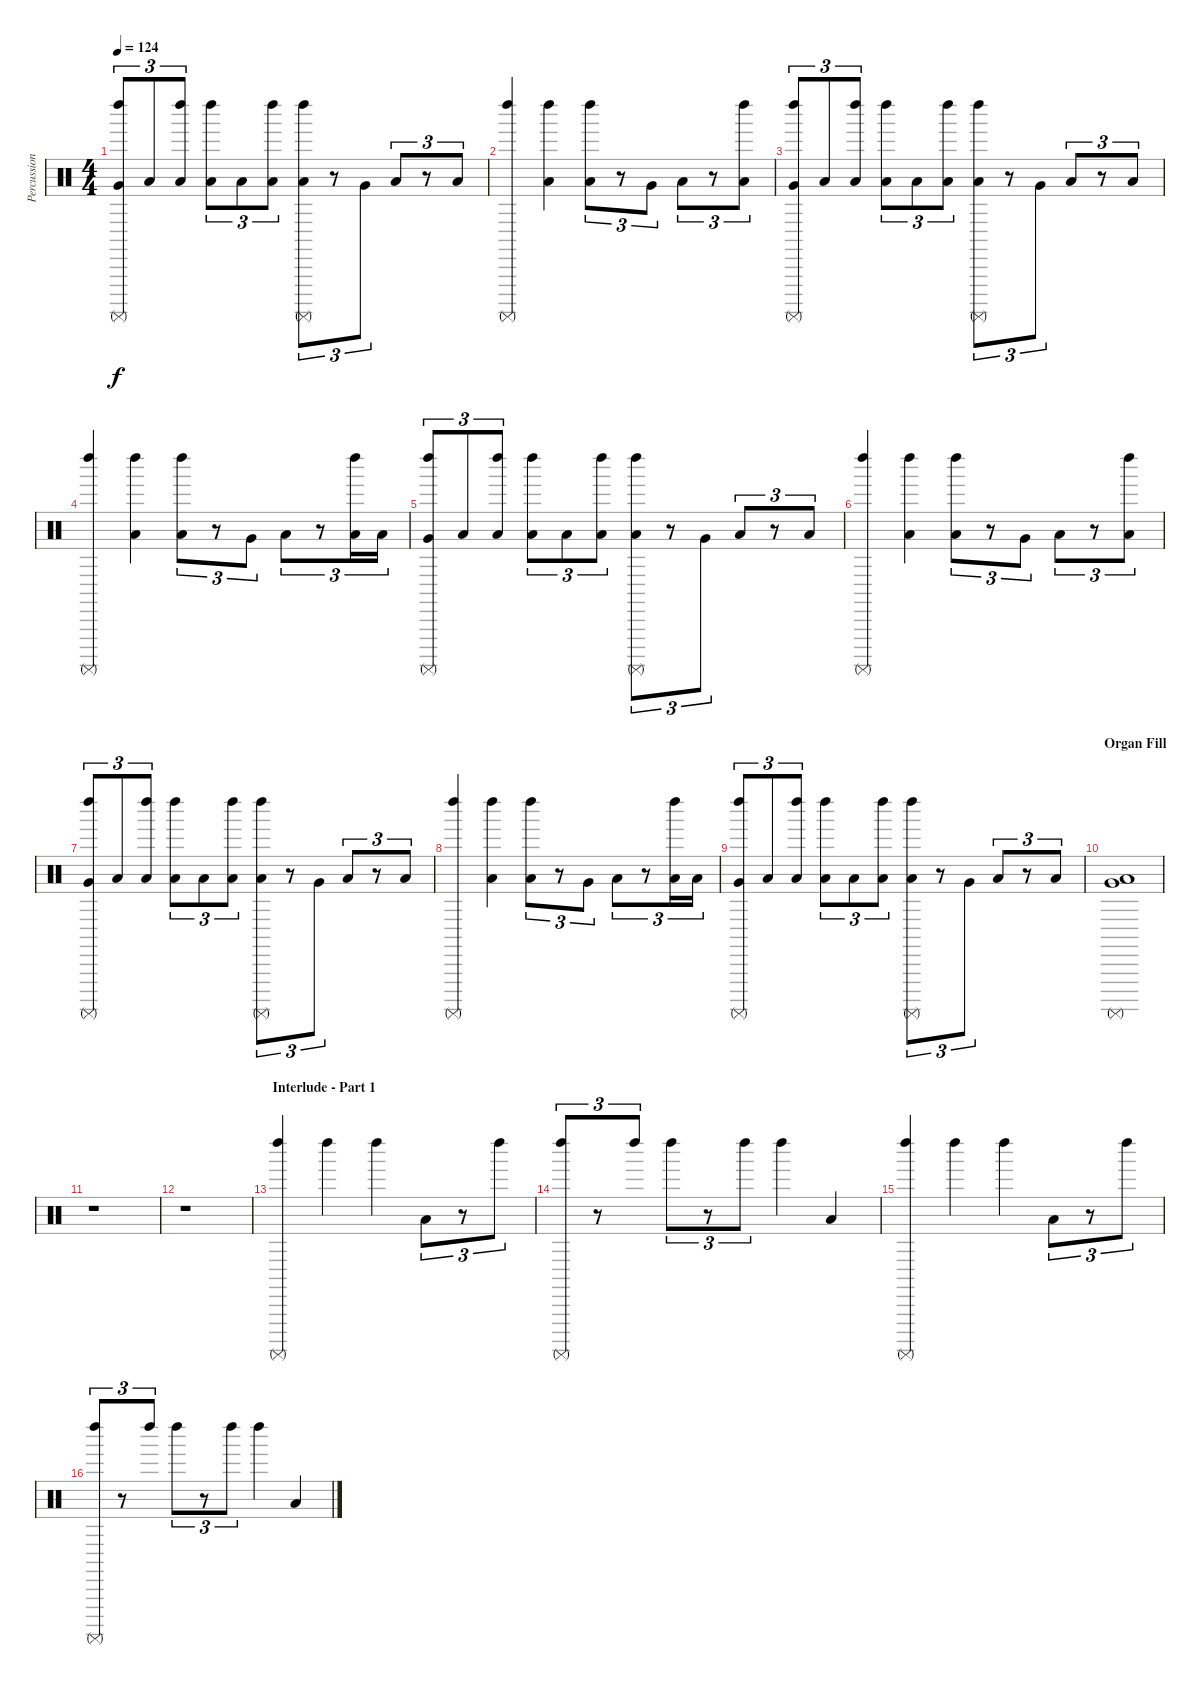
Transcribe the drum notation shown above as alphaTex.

\track ("Percussion" "Percussion") {instrument percussion}
\staff {score}
\articulation defaults
\ts (4 4)
\tempo 124
\clef neutral
\ks c
("Left Maraca (hit)" "Very Low Tom (hit)" "Surdo (mute)").8{tu (3 2) dy f} "Low Floor Tom (hit)".8{tu (3 2)} ("Left Maraca (hit)" "Low Floor Tom (hit)").8{tu (3 2)} ("Left Maraca (hit)" "Low Floor Tom (hit)").8{tu (3 2)} "Low Floor Tom (hit)".8{tu (3 2)} ("Left Maraca (hit)" "Low Floor Tom (hit)").8{tu (3 2)} ("Left Maraca (hit)" "Low Floor Tom (hit)" "Surdo (mute)").8{tu (3 2)} r.8{tu (3 2)} "Very Low Tom (hit)".8{tu (3 2)} "Low Floor Tom (hit)".8{tu (3 2)} r.8{tu (3 2)} "Low Floor Tom (hit)".8{tu (3 2)} |
("Left Maraca (hit)" "Surdo (mute)").4 ("Left Maraca (hit)" "Low Floor Tom (hit)").4 ("Left Maraca (hit)" "Low Floor Tom (hit)").8{tu (3 2)} r.8{tu (3 2)} "Very Low Tom (hit)".8{tu (3 2)} "Low Floor Tom (hit)".8{tu (3 2)} r.8{tu (3 2)} ("Left Maraca (hit)" "Low Floor Tom (hit)").8{tu (3 2)} |
("Left Maraca (hit)" "Very Low Tom (hit)" "Surdo (mute)").8{tu (3 2)} "Low Floor Tom (hit)".8{tu (3 2)} ("Left Maraca (hit)" "Low Floor Tom (hit)").8{tu (3 2)} ("Left Maraca (hit)" "Low Floor Tom (hit)").8{tu (3 2)} "Low Floor Tom (hit)".8{tu (3 2)} ("Left Maraca (hit)" "Low Floor Tom (hit)").8{tu (3 2)} ("Left Maraca (hit)" "Low Floor Tom (hit)" "Surdo (mute)").8{tu (3 2)} r.8{tu (3 2)} "Very Low Tom (hit)".8{tu (3 2)} "Low Floor Tom (hit)".8{tu (3 2)} r.8{tu (3 2)} "Low Floor Tom (hit)".8{tu (3 2)} |
("Left Maraca (hit)" "Surdo (mute)").4 ("Left Maraca (hit)" "Low Floor Tom (hit)").4 ("Left Maraca (hit)" "Low Floor Tom (hit)").8{tu (3 2)} r.8{tu (3 2)} "Very Low Tom (hit)".8{tu (3 2)} "Low Floor Tom (hit)".8{tu (3 2)} r.8{tu (3 2)} ("Left Maraca (hit)" "Low Floor Tom (hit)").16{tu (3 2)} "Low Floor Tom (hit)".16{tu (3 2)} |
("Left Maraca (hit)" "Very Low Tom (hit)" "Surdo (mute)").8{tu (3 2)} "Low Floor Tom (hit)".8{tu (3 2)} ("Left Maraca (hit)" "Low Floor Tom (hit)").8{tu (3 2)} ("Left Maraca (hit)" "Low Floor Tom (hit)").8{tu (3 2)} "Low Floor Tom (hit)".8{tu (3 2)} ("Left Maraca (hit)" "Low Floor Tom (hit)").8{tu (3 2)} ("Left Maraca (hit)" "Low Floor Tom (hit)" "Surdo (mute)").8{tu (3 2)} r.8{tu (3 2)} "Very Low Tom (hit)".8{tu (3 2)} "Low Floor Tom (hit)".8{tu (3 2)} r.8{tu (3 2)} "Low Floor Tom (hit)".8{tu (3 2)} |
("Left Maraca (hit)" "Surdo (mute)").4 ("Left Maraca (hit)" "Low Floor Tom (hit)").4 ("Left Maraca (hit)" "Low Floor Tom (hit)").8{tu (3 2)} r.8{tu (3 2)} "Very Low Tom (hit)".8{tu (3 2)} "Low Floor Tom (hit)".8{tu (3 2)} r.8{tu (3 2)} ("Left Maraca (hit)" "Low Floor Tom (hit)").8{tu (3 2)} |
("Left Maraca (hit)" "Very Low Tom (hit)" "Surdo (mute)").8{tu (3 2)} "Low Floor Tom (hit)".8{tu (3 2)} ("Left Maraca (hit)" "Low Floor Tom (hit)").8{tu (3 2)} ("Left Maraca (hit)" "Low Floor Tom (hit)").8{tu (3 2)} "Low Floor Tom (hit)".8{tu (3 2)} ("Left Maraca (hit)" "Low Floor Tom (hit)").8{tu (3 2)} ("Left Maraca (hit)" "Low Floor Tom (hit)" "Surdo (mute)").8{tu (3 2)} r.8{tu (3 2)} "Very Low Tom (hit)".8{tu (3 2)} "Low Floor Tom (hit)".8{tu (3 2)} r.8{tu (3 2)} "Low Floor Tom (hit)".8{tu (3 2)} |
("Left Maraca (hit)" "Surdo (mute)").4 ("Left Maraca (hit)" "Low Floor Tom (hit)").4 ("Left Maraca (hit)" "Low Floor Tom (hit)").8{tu (3 2)} r.8{tu (3 2)} "Very Low Tom (hit)".8{tu (3 2)} "Low Floor Tom (hit)".8{tu (3 2)} r.8{tu (3 2)} ("Left Maraca (hit)" "Low Floor Tom (hit)").16{tu (3 2)} "Low Floor Tom (hit)".16{tu (3 2)} |
("Left Maraca (hit)" "Very Low Tom (hit)" "Surdo (mute)").8{tu (3 2)} "Low Floor Tom (hit)".8{tu (3 2)} ("Left Maraca (hit)" "Low Floor Tom (hit)").8{tu (3 2)} ("Left Maraca (hit)" "Low Floor Tom (hit)").8{tu (3 2)} "Low Floor Tom (hit)".8{tu (3 2)} ("Left Maraca (hit)" "Low Floor Tom (hit)").8{tu (3 2)} ("Left Maraca (hit)" "Low Floor Tom (hit)" "Surdo (mute)").8{tu (3 2)} r.8{tu (3 2)} "Very Low Tom (hit)".8{tu (3 2)} "Low Floor Tom (hit)".8{tu (3 2)} r.8{tu (3 2)} "Low Floor Tom (hit)".8{tu (3 2)} |
\section ("" "Organ Fill")
("Very Low Tom (hit)" "Low Floor Tom (hit)" "Surdo (mute)").1 |
r.1 |
r.1 |
\section ("" "Interlude - Part 1")
("Left Maraca (hit)" "Surdo (mute)").4 "Left Maraca (hit)".4 "Left Maraca (hit)".4 "Low Floor Tom (hit)".8{tu (3 2)} r.8{tu (3 2)} "Left Maraca (hit)".8{tu (3 2)} |
("Left Maraca (hit)" "Surdo (mute)").8{tu (3 2)} r.8{tu (3 2)} "Left Maraca (hit)".8{tu (3 2)} "Left Maraca (hit)".8{tu (3 2)} r.8{tu (3 2)} "Left Maraca (hit)".8{tu (3 2)} "Left Maraca (hit)".4 "Low Floor Tom (hit)".4 |
("Left Maraca (hit)" "Surdo (mute)").4 "Left Maraca (hit)".4 "Left Maraca (hit)".4 "Low Floor Tom (hit)".8{tu (3 2)} r.8{tu (3 2)} "Left Maraca (hit)".8{tu (3 2)} |
("Left Maraca (hit)" "Surdo (mute)").8{tu (3 2)} r.8{tu (3 2)} "Left Maraca (hit)".8{tu (3 2)} "Left Maraca (hit)".8{tu (3 2)} r.8{tu (3 2)} "Left Maraca (hit)".8{tu (3 2)} "Left Maraca (hit)".4 "Low Floor Tom (hit)".4
